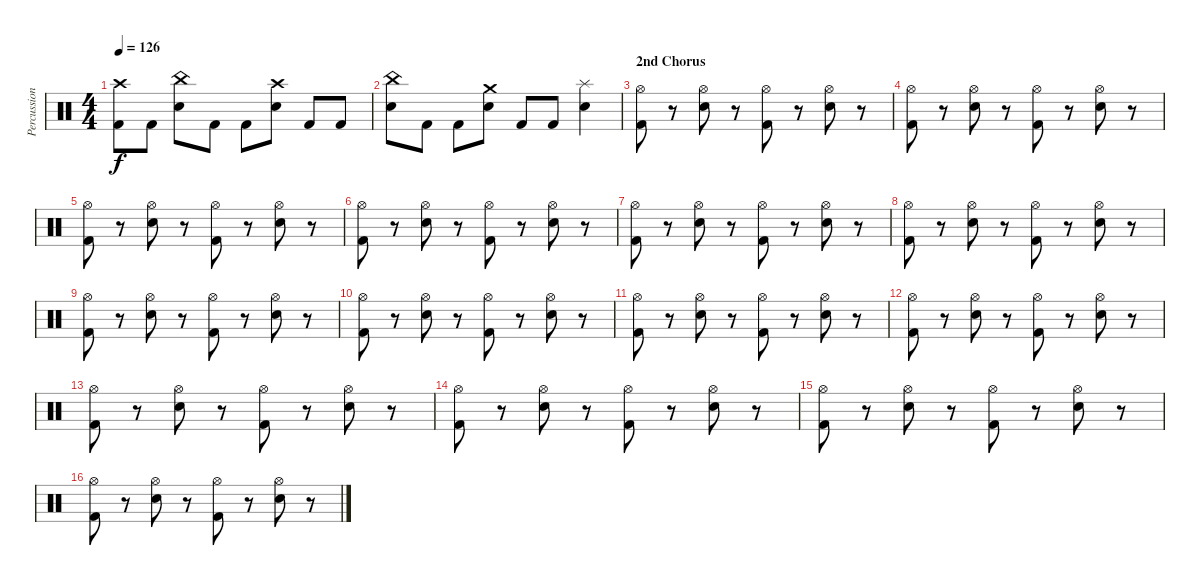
\track ("Percussion" "Percussion") {instrument percussion}
\staff {score}
\articulation defaults
\ts (4 4)
\tempo 126
\clef neutral
\ks c
("Crash high (hit)" "Kick (hit) 2").8{dy f} "Kick (hit) 2".8 ("China (hit)" "Snare (hit) 2").8 "Kick (hit) 2".8 "Kick (hit) 2".8 ("Crash high (hit)" "Snare (hit) 2").8 "Kick (hit) 2".8 "Kick (hit) 2".8 |
("China (hit)" "Snare (hit) 2").8 "Kick (hit) 2".8 "Kick (hit) 2".8 ("Crash medium (hit)" "Snare (hit) 2").8 "Kick (hit) 2".8 "Kick (hit) 2".8 ("Splash (hit)" "Snare (hit) 2").4 |
\section ("" "2nd Chorus")
("Hi-Hat (open)" "Kick (hit) 2").8 r.8 ("Hi-Hat (open)" "Snare (hit) 2").8 r.8 ("Hi-Hat (open)" "Kick (hit) 2").8 r.8 ("Hi-Hat (open)" "Snare (hit) 2").8 r.8 |
("Hi-Hat (open)" "Kick (hit) 2").8 r.8 ("Hi-Hat (open)" "Snare (hit) 2").8 r.8 ("Hi-Hat (open)" "Kick (hit) 2").8 r.8 ("Hi-Hat (open)" "Snare (hit) 2").8 r.8 |
("Hi-Hat (open)" "Kick (hit) 2").8 r.8 ("Hi-Hat (open)" "Snare (hit) 2").8 r.8 ("Hi-Hat (open)" "Kick (hit) 2").8 r.8 ("Hi-Hat (open)" "Snare (hit) 2").8 r.8 |
("Hi-Hat (open)" "Kick (hit) 2").8 r.8 ("Hi-Hat (open)" "Snare (hit) 2").8 r.8 ("Hi-Hat (open)" "Kick (hit) 2").8 r.8 ("Hi-Hat (open)" "Snare (hit) 2").8 r.8 |
("Hi-Hat (open)" "Kick (hit) 2").8 r.8 ("Hi-Hat (open)" "Snare (hit) 2").8 r.8 ("Hi-Hat (open)" "Kick (hit) 2").8 r.8 ("Hi-Hat (open)" "Snare (hit) 2").8 r.8 |
("Hi-Hat (open)" "Kick (hit) 2").8 r.8 ("Hi-Hat (open)" "Snare (hit) 2").8 r.8 ("Hi-Hat (open)" "Kick (hit) 2").8 r.8 ("Hi-Hat (open)" "Snare (hit) 2").8 r.8 |
("Hi-Hat (open)" "Kick (hit) 2").8 r.8 ("Hi-Hat (open)" "Snare (hit) 2").8 r.8 ("Hi-Hat (open)" "Kick (hit) 2").8 r.8 ("Hi-Hat (open)" "Snare (hit) 2").8 r.8 |
("Hi-Hat (open)" "Kick (hit) 2").8 r.8 ("Hi-Hat (open)" "Snare (hit) 2").8 r.8 ("Hi-Hat (open)" "Kick (hit) 2").8 r.8 ("Hi-Hat (open)" "Snare (hit) 2").8 r.8 |
("Hi-Hat (open)" "Kick (hit) 2").8 r.8 ("Hi-Hat (open)" "Snare (hit) 2").8 r.8 ("Hi-Hat (open)" "Kick (hit) 2").8 r.8 ("Hi-Hat (open)" "Snare (hit) 2").8 r.8 |
("Hi-Hat (open)" "Kick (hit) 2").8 r.8 ("Hi-Hat (open)" "Snare (hit) 2").8 r.8 ("Hi-Hat (open)" "Kick (hit) 2").8 r.8 ("Hi-Hat (open)" "Snare (hit) 2").8 r.8 |
("Hi-Hat (open)" "Kick (hit) 2").8 r.8 ("Hi-Hat (open)" "Snare (hit) 2").8 r.8 ("Hi-Hat (open)" "Kick (hit) 2").8 r.8 ("Hi-Hat (open)" "Snare (hit) 2").8 r.8 |
("Hi-Hat (open)" "Kick (hit) 2").8 r.8 ("Hi-Hat (open)" "Snare (hit) 2").8 r.8 ("Hi-Hat (open)" "Kick (hit) 2").8 r.8 ("Hi-Hat (open)" "Snare (hit) 2").8 r.8 |
("Hi-Hat (open)" "Kick (hit) 2").8 r.8 ("Hi-Hat (open)" "Snare (hit) 2").8 r.8 ("Hi-Hat (open)" "Kick (hit) 2").8 r.8 ("Hi-Hat (open)" "Snare (hit) 2").8 r.8 |
("Hi-Hat (open)" "Kick (hit) 2").8 r.8 ("Hi-Hat (open)" "Snare (hit) 2").8 r.8 ("Hi-Hat (open)" "Kick (hit) 2").8 r.8 ("Hi-Hat (open)" "Snare (hit) 2").8 r.8
